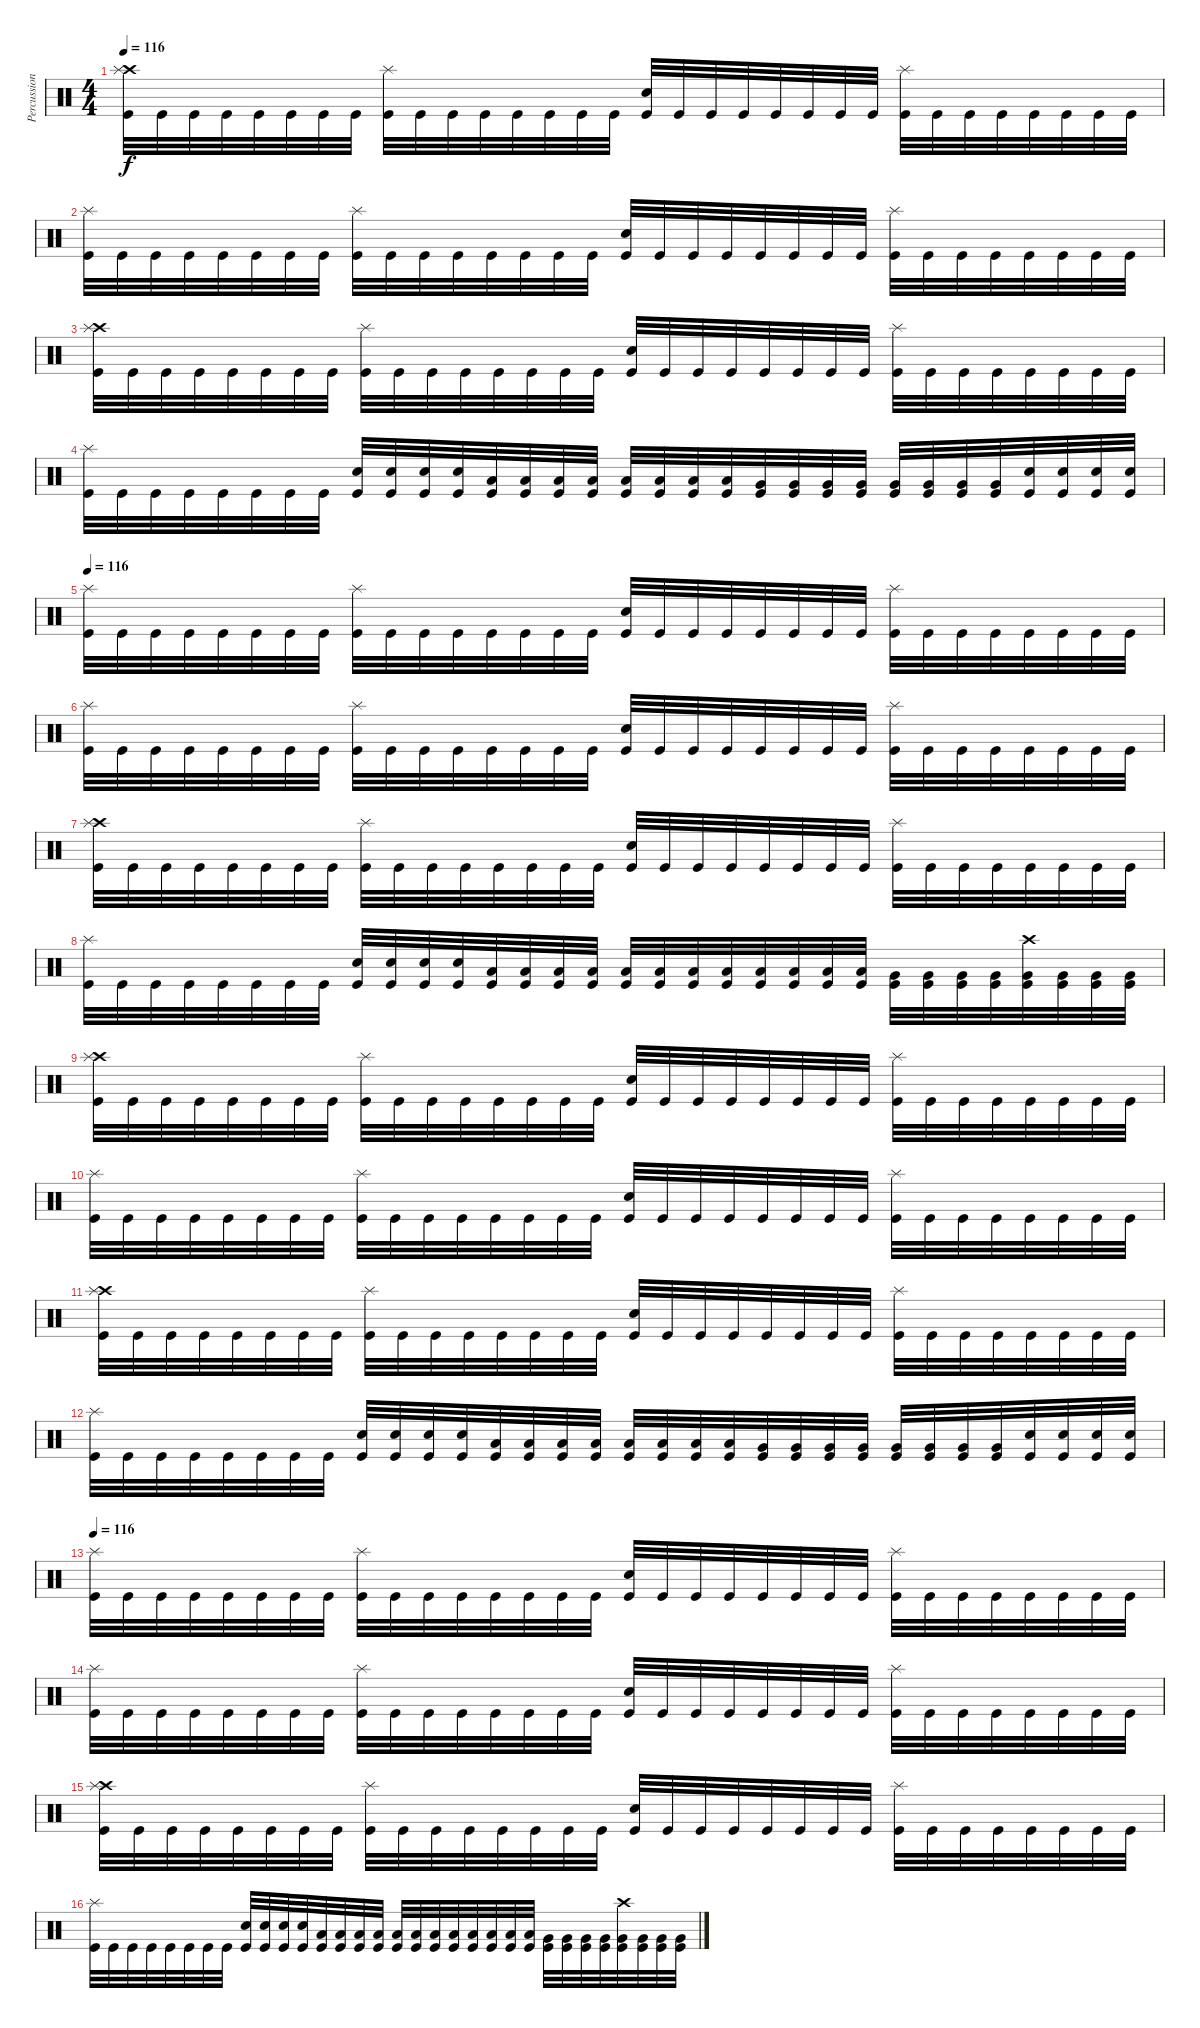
\track ("Percussion" "Percussion") {instrument percussion}
\staff {score}
\articulation defaults
\ts (4 4)
\tempo 116
\clef neutral
\ks c
("Crash high (hit)" "Splash (hit)" "Kick (hit)").32{dy f} "Kick (hit)".32 "Kick (hit)".32 "Kick (hit)".32 "Kick (hit)".32 "Kick (hit)".32 "Kick (hit)".32 "Kick (hit)".32 ("Splash (hit)" "Kick (hit)").32 "Kick (hit)".32 "Kick (hit)".32 "Kick (hit)".32 "Kick (hit)".32 "Kick (hit)".32 "Kick (hit)".32 "Kick (hit)".32 ("Electric Snare (hit)" "Kick (hit)").32 "Kick (hit)".32 "Kick (hit)".32 "Kick (hit)".32 "Kick (hit)".32 "Kick (hit)".32 "Kick (hit)".32 "Kick (hit)".32 ("Splash (hit)" "Kick (hit)").32 "Kick (hit)".32 "Kick (hit)".32 "Kick (hit)".32 "Kick (hit)".32 "Kick (hit)".32 "Kick (hit)".32 "Kick (hit)".32 |
("Splash (hit)" "Kick (hit)").32 "Kick (hit)".32 "Kick (hit)".32 "Kick (hit)".32 "Kick (hit)".32 "Kick (hit)".32 "Kick (hit)".32 "Kick (hit)".32 ("Splash (hit)" "Kick (hit)").32 "Kick (hit)".32 "Kick (hit)".32 "Kick (hit)".32 "Kick (hit)".32 "Kick (hit)".32 "Kick (hit)".32 "Kick (hit)".32 ("Electric Snare (hit)" "Kick (hit)").32 "Kick (hit)".32 "Kick (hit)".32 "Kick (hit)".32 "Kick (hit)".32 "Kick (hit)".32 "Kick (hit)".32 "Kick (hit)".32 ("Splash (hit)" "Kick (hit)").32 "Kick (hit)".32 "Kick (hit)".32 "Kick (hit)".32 "Kick (hit)".32 "Kick (hit)".32 "Kick (hit)".32 "Kick (hit)".32 |
("Crash high (hit)" "Splash (hit)" "Kick (hit)").32 "Kick (hit)".32 "Kick (hit)".32 "Kick (hit)".32 "Kick (hit)".32 "Kick (hit)".32 "Kick (hit)".32 "Kick (hit)".32 ("Splash (hit)" "Kick (hit)").32 "Kick (hit)".32 "Kick (hit)".32 "Kick (hit)".32 "Kick (hit)".32 "Kick (hit)".32 "Kick (hit)".32 "Kick (hit)".32 ("Electric Snare (hit)" "Kick (hit)").32 "Kick (hit)".32 "Kick (hit)".32 "Kick (hit)".32 "Kick (hit)".32 "Kick (hit)".32 "Kick (hit)".32 "Kick (hit)".32 ("Splash (hit)" "Kick (hit)").32 "Kick (hit)".32 "Kick (hit)".32 "Kick (hit)".32 "Kick (hit)".32 "Kick (hit)".32 "Kick (hit)".32 "Kick (hit)".32 |
("Splash (hit)" "Kick (hit)").32 "Kick (hit)".32 "Kick (hit)".32 "Kick (hit)".32 "Kick (hit)".32 "Kick (hit)".32 "Kick (hit)".32 "Kick (hit)".32 ("Electric Snare (hit)" "Kick (hit)").32 ("Electric Snare (hit)" "Kick (hit)").32 ("Electric Snare (hit)" "Kick (hit)").32 ("Electric Snare (hit)" "Kick (hit)").32 ("Low Tom (hit)" "Kick (hit)").32 ("Low Tom (hit)" "Kick (hit)").32 ("Low Tom (hit)" "Kick (hit)").32 ("Low Tom (hit)" "Kick (hit)").32 ("Low Tom (hit)" "Kick (hit)").32 ("Low Tom (hit)" "Kick (hit)").32 ("Low Tom (hit)" "Kick (hit)").32 ("Low Tom (hit)" "Kick (hit)").32 ("Very Low Tom (hit)" "Kick (hit)").32 ("Very Low Tom (hit)" "Kick (hit)").32 ("Very Low Tom (hit)" "Kick (hit)").32 ("Very Low Tom (hit)" "Kick (hit)").32 ("Very Low Tom (hit)" "Kick (hit)").32 ("Very Low Tom (hit)" "Kick (hit)").32 ("Very Low Tom (hit)" "Kick (hit)").32 ("Very Low Tom (hit)" "Kick (hit)").32 ("Snare (hit) 2" "Kick (hit)").32 ("Snare (hit) 2" "Kick (hit)").32 ("Snare (hit) 2" "Kick (hit)").32 ("Snare (hit) 2" "Kick (hit)").32 |
\tempo 112
\tempo 116
("Splash (hit)" "Kick (hit)").32 "Kick (hit)".32 "Kick (hit)".32 "Kick (hit)".32 "Kick (hit)".32 "Kick (hit)".32 "Kick (hit)".32 "Kick (hit)".32 ("Splash (hit)" "Kick (hit)").32 "Kick (hit)".32 "Kick (hit)".32 "Kick (hit)".32 "Kick (hit)".32 "Kick (hit)".32 "Kick (hit)".32 "Kick (hit)".32 ("Electric Snare (hit)" "Kick (hit)").32 "Kick (hit)".32 "Kick (hit)".32 "Kick (hit)".32 "Kick (hit)".32 "Kick (hit)".32 "Kick (hit)".32 "Kick (hit)".32 ("Splash (hit)" "Kick (hit)").32 "Kick (hit)".32 "Kick (hit)".32 "Kick (hit)".32 "Kick (hit)".32 "Kick (hit)".32 "Kick (hit)".32 "Kick (hit)".32 |
("Splash (hit)" "Kick (hit)").32 "Kick (hit)".32 "Kick (hit)".32 "Kick (hit)".32 "Kick (hit)".32 "Kick (hit)".32 "Kick (hit)".32 "Kick (hit)".32 ("Splash (hit)" "Kick (hit)").32 "Kick (hit)".32 "Kick (hit)".32 "Kick (hit)".32 "Kick (hit)".32 "Kick (hit)".32 "Kick (hit)".32 "Kick (hit)".32 ("Electric Snare (hit)" "Kick (hit)").32 "Kick (hit)".32 "Kick (hit)".32 "Kick (hit)".32 "Kick (hit)".32 "Kick (hit)".32 "Kick (hit)".32 "Kick (hit)".32 ("Splash (hit)" "Kick (hit)").32 "Kick (hit)".32 "Kick (hit)".32 "Kick (hit)".32 "Kick (hit)".32 "Kick (hit)".32 "Kick (hit)".32 "Kick (hit)".32 |
("Crash high (hit)" "Splash (hit)" "Kick (hit)").32 "Kick (hit)".32 "Kick (hit)".32 "Kick (hit)".32 "Kick (hit)".32 "Kick (hit)".32 "Kick (hit)".32 "Kick (hit)".32 ("Splash (hit)" "Kick (hit)").32 "Kick (hit)".32 "Kick (hit)".32 "Kick (hit)".32 "Kick (hit)".32 "Kick (hit)".32 "Kick (hit)".32 "Kick (hit)".32 ("Electric Snare (hit)" "Kick (hit)").32 "Kick (hit)".32 "Kick (hit)".32 "Kick (hit)".32 "Kick (hit)".32 "Kick (hit)".32 "Kick (hit)".32 "Kick (hit)".32 ("Splash (hit)" "Kick (hit)").32 "Kick (hit)".32 "Kick (hit)".32 "Kick (hit)".32 "Kick (hit)".32 "Kick (hit)".32 "Kick (hit)".32 "Kick (hit)".32 |
("Splash (hit)" "Kick (hit)").32 "Kick (hit)".32 "Kick (hit)".32 "Kick (hit)".32 "Kick (hit)".32 "Kick (hit)".32 "Kick (hit)".32 "Kick (hit)".32 ("Electric Snare (hit)" "Kick (hit)").32 ("Electric Snare (hit)" "Kick (hit)").32 ("Electric Snare (hit)" "Kick (hit)").32 ("Electric Snare (hit)" "Kick (hit)").32 ("Low Tom (hit)" "Kick (hit)").32 ("Low Tom (hit)" "Kick (hit)").32 ("Low Tom (hit)" "Kick (hit)").32 ("Low Tom (hit)" "Kick (hit)").32 ("Low Tom (hit)" "Kick (hit)").32 ("Low Tom (hit)" "Kick (hit)").32 ("Low Tom (hit)" "Kick (hit)").32 ("Low Tom (hit)" "Kick (hit)").32 ("Low Tom (hit)" "Kick (hit)").32 ("Low Tom (hit)" "Kick (hit)").32 ("Low Tom (hit)" "Kick (hit)").32 ("Low Tom (hit)" "Kick (hit)").32 ("Very Low Tom (hit)" "Kick (hit)").32 ("Very Low Tom (hit)" "Kick (hit)").32 ("Very Low Tom (hit)" "Kick (hit)").32 ("Very Low Tom (hit)" "Kick (hit)").32 ("Crash high (hit)" "Very Low Tom (hit)" "Kick (hit)").32 ("Very Low Tom (hit)" "Kick (hit)").32 ("Very Low Tom (hit)" "Kick (hit)").32 ("Very Low Tom (hit)" "Kick (hit)").32 |
("Crash high (hit)" "Splash (hit)" "Kick (hit)").32 "Kick (hit)".32 "Kick (hit)".32 "Kick (hit)".32 "Kick (hit)".32 "Kick (hit)".32 "Kick (hit)".32 "Kick (hit)".32 ("Splash (hit)" "Kick (hit)").32 "Kick (hit)".32 "Kick (hit)".32 "Kick (hit)".32 "Kick (hit)".32 "Kick (hit)".32 "Kick (hit)".32 "Kick (hit)".32 ("Electric Snare (hit)" "Kick (hit)").32 "Kick (hit)".32 "Kick (hit)".32 "Kick (hit)".32 "Kick (hit)".32 "Kick (hit)".32 "Kick (hit)".32 "Kick (hit)".32 ("Splash (hit)" "Kick (hit)").32 "Kick (hit)".32 "Kick (hit)".32 "Kick (hit)".32 "Kick (hit)".32 "Kick (hit)".32 "Kick (hit)".32 "Kick (hit)".32 |
("Splash (hit)" "Kick (hit)").32 "Kick (hit)".32 "Kick (hit)".32 "Kick (hit)".32 "Kick (hit)".32 "Kick (hit)".32 "Kick (hit)".32 "Kick (hit)".32 ("Splash (hit)" "Kick (hit)").32 "Kick (hit)".32 "Kick (hit)".32 "Kick (hit)".32 "Kick (hit)".32 "Kick (hit)".32 "Kick (hit)".32 "Kick (hit)".32 ("Electric Snare (hit)" "Kick (hit)").32 "Kick (hit)".32 "Kick (hit)".32 "Kick (hit)".32 "Kick (hit)".32 "Kick (hit)".32 "Kick (hit)".32 "Kick (hit)".32 ("Splash (hit)" "Kick (hit)").32 "Kick (hit)".32 "Kick (hit)".32 "Kick (hit)".32 "Kick (hit)".32 "Kick (hit)".32 "Kick (hit)".32 "Kick (hit)".32 |
("Crash high (hit)" "Splash (hit)" "Kick (hit)").32 "Kick (hit)".32 "Kick (hit)".32 "Kick (hit)".32 "Kick (hit)".32 "Kick (hit)".32 "Kick (hit)".32 "Kick (hit)".32 ("Splash (hit)" "Kick (hit)").32 "Kick (hit)".32 "Kick (hit)".32 "Kick (hit)".32 "Kick (hit)".32 "Kick (hit)".32 "Kick (hit)".32 "Kick (hit)".32 ("Electric Snare (hit)" "Kick (hit)").32 "Kick (hit)".32 "Kick (hit)".32 "Kick (hit)".32 "Kick (hit)".32 "Kick (hit)".32 "Kick (hit)".32 "Kick (hit)".32 ("Splash (hit)" "Kick (hit)").32 "Kick (hit)".32 "Kick (hit)".32 "Kick (hit)".32 "Kick (hit)".32 "Kick (hit)".32 "Kick (hit)".32 "Kick (hit)".32 |
("Splash (hit)" "Kick (hit)").32 "Kick (hit)".32 "Kick (hit)".32 "Kick (hit)".32 "Kick (hit)".32 "Kick (hit)".32 "Kick (hit)".32 "Kick (hit)".32 ("Electric Snare (hit)" "Kick (hit)").32 ("Electric Snare (hit)" "Kick (hit)").32 ("Electric Snare (hit)" "Kick (hit)").32 ("Electric Snare (hit)" "Kick (hit)").32 ("Low Tom (hit)" "Kick (hit)").32 ("Low Tom (hit)" "Kick (hit)").32 ("Low Tom (hit)" "Kick (hit)").32 ("Low Tom (hit)" "Kick (hit)").32 ("Low Tom (hit)" "Kick (hit)").32 ("Low Tom (hit)" "Kick (hit)").32 ("Low Tom (hit)" "Kick (hit)").32 ("Low Tom (hit)" "Kick (hit)").32 ("Very Low Tom (hit)" "Kick (hit)").32 ("Very Low Tom (hit)" "Kick (hit)").32 ("Very Low Tom (hit)" "Kick (hit)").32 ("Very Low Tom (hit)" "Kick (hit)").32 ("Very Low Tom (hit)" "Kick (hit)").32 ("Very Low Tom (hit)" "Kick (hit)").32 ("Very Low Tom (hit)" "Kick (hit)").32 ("Very Low Tom (hit)" "Kick (hit)").32 ("Electric Snare (hit)" "Kick (hit)").32 ("Electric Snare (hit)" "Kick (hit)").32 ("Electric Snare (hit)" "Kick (hit)").32 ("Electric Snare (hit)" "Kick (hit)").32 |
\tempo 112
\tempo 116
("Splash (hit)" "Kick (hit)").32 "Kick (hit)".32 "Kick (hit)".32 "Kick (hit)".32 "Kick (hit)".32 "Kick (hit)".32 "Kick (hit)".32 "Kick (hit)".32 ("Splash (hit)" "Kick (hit)").32 "Kick (hit)".32 "Kick (hit)".32 "Kick (hit)".32 "Kick (hit)".32 "Kick (hit)".32 "Kick (hit)".32 "Kick (hit)".32 ("Electric Snare (hit)" "Kick (hit)").32 "Kick (hit)".32 "Kick (hit)".32 "Kick (hit)".32 "Kick (hit)".32 "Kick (hit)".32 "Kick (hit)".32 "Kick (hit)".32 ("Splash (hit)" "Kick (hit)").32 "Kick (hit)".32 "Kick (hit)".32 "Kick (hit)".32 "Kick (hit)".32 "Kick (hit)".32 "Kick (hit)".32 "Kick (hit)".32 |
("Splash (hit)" "Kick (hit)").32 "Kick (hit)".32 "Kick (hit)".32 "Kick (hit)".32 "Kick (hit)".32 "Kick (hit)".32 "Kick (hit)".32 "Kick (hit)".32 ("Splash (hit)" "Kick (hit)").32 "Kick (hit)".32 "Kick (hit)".32 "Kick (hit)".32 "Kick (hit)".32 "Kick (hit)".32 "Kick (hit)".32 "Kick (hit)".32 ("Electric Snare (hit)" "Kick (hit)").32 "Kick (hit)".32 "Kick (hit)".32 "Kick (hit)".32 "Kick (hit)".32 "Kick (hit)".32 "Kick (hit)".32 "Kick (hit)".32 ("Splash (hit)" "Kick (hit)").32 "Kick (hit)".32 "Kick (hit)".32 "Kick (hit)".32 "Kick (hit)".32 "Kick (hit)".32 "Kick (hit)".32 "Kick (hit)".32 |
("Crash high (hit)" "Splash (hit)" "Kick (hit)").32 "Kick (hit)".32 "Kick (hit)".32 "Kick (hit)".32 "Kick (hit)".32 "Kick (hit)".32 "Kick (hit)".32 "Kick (hit)".32 ("Splash (hit)" "Kick (hit)").32 "Kick (hit)".32 "Kick (hit)".32 "Kick (hit)".32 "Kick (hit)".32 "Kick (hit)".32 "Kick (hit)".32 "Kick (hit)".32 ("Electric Snare (hit)" "Kick (hit)").32 "Kick (hit)".32 "Kick (hit)".32 "Kick (hit)".32 "Kick (hit)".32 "Kick (hit)".32 "Kick (hit)".32 "Kick (hit)".32 ("Splash (hit)" "Kick (hit)").32 "Kick (hit)".32 "Kick (hit)".32 "Kick (hit)".32 "Kick (hit)".32 "Kick (hit)".32 "Kick (hit)".32 "Kick (hit)".32 |
("Splash (hit)" "Kick (hit)").32 "Kick (hit)".32 "Kick (hit)".32 "Kick (hit)".32 "Kick (hit)".32 "Kick (hit)".32 "Kick (hit)".32 "Kick (hit)".32 ("Electric Snare (hit)" "Kick (hit)").32 ("Electric Snare (hit)" "Kick (hit)").32 ("Electric Snare (hit)" "Kick (hit)").32 ("Electric Snare (hit)" "Kick (hit)").32 ("Low Tom (hit)" "Kick (hit)").32 ("Low Tom (hit)" "Kick (hit)").32 ("Low Tom (hit)" "Kick (hit)").32 ("Low Tom (hit)" "Kick (hit)").32 ("Low Tom (hit)" "Kick (hit)").32 ("Low Tom (hit)" "Kick (hit)").32 ("Low Tom (hit)" "Kick (hit)").32 ("Low Tom (hit)" "Kick (hit)").32 ("Low Tom (hit)" "Kick (hit)").32 ("Low Tom (hit)" "Kick (hit)").32 ("Low Tom (hit)" "Kick (hit)").32 ("Low Tom (hit)" "Kick (hit)").32 ("Very Low Tom (hit)" "Kick (hit)").32 ("Very Low Tom (hit)" "Kick (hit)").32 ("Very Low Tom (hit)" "Kick (hit)").32 ("Very Low Tom (hit)" "Kick (hit)").32 ("Crash high (hit)" "Very Low Tom (hit)" "Kick (hit)").32 ("Very Low Tom (hit)" "Kick (hit)").32 ("Very Low Tom (hit)" "Kick (hit)").32 ("Very Low Tom (hit)" "Kick (hit)").32
